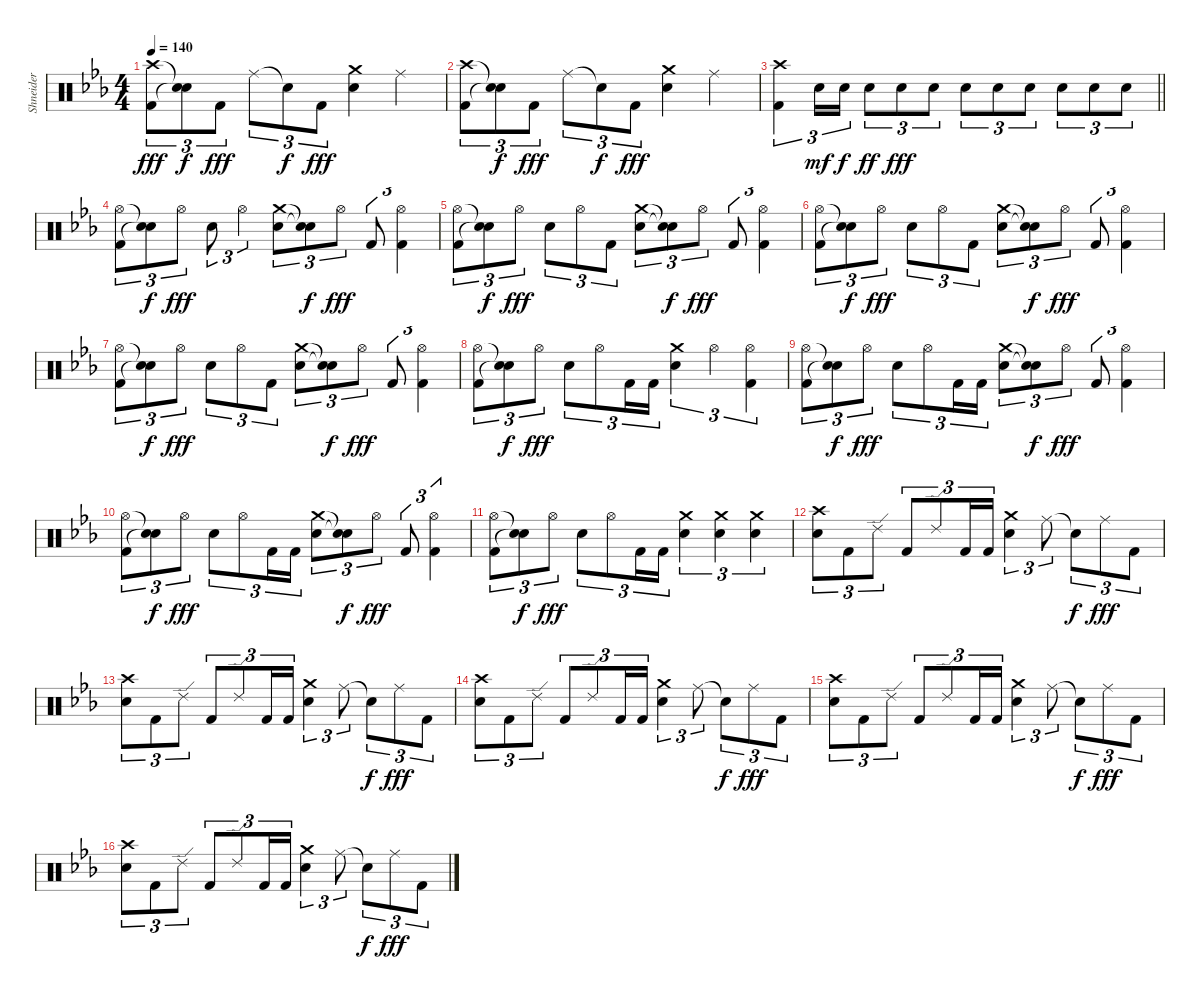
\track ("Shneider" "Shneider") {instrument percussion}
\staff {score}
\articulation defaults
\ts (4 4)
\tempo 140
\clef neutral
\ks eb
("Crash high (hit)" "Kick (hit) 2").8{tu (3 2) dy fff} ("Snare (hit)"{t} "Snare (hit)"{t}).8{tu (3 2) dy f} "Kick (hit) 2".8{tu (3 2) dy fff} "Ride (middle)".8{tu (3 2)} "Snare (hit)"{t}.8{tu (3 2) dy f} "Kick (hit) 2".8{tu (3 2) dy fff} ("Crash medium (hit)" "Snare (hit) 2").4 "Ride (middle)".4 |
("Crash high (hit)" "Kick (hit) 2").8{tu (3 2)} ("Snare (hit)"{t} "Snare (hit)"{t}).8{tu (3 2) dy f} "Kick (hit) 2".8{tu (3 2) dy fff} "Ride (middle)".8{tu (3 2)} "Snare (hit)"{t}.8{tu (3 2) dy f} "Kick (hit) 2".8{tu (3 2) dy fff} ("Crash medium (hit)" "Snare (hit) 2").4 "Ride (middle)".4 |
\barLineRight lightlight
("Crash high (hit)" "Kick (hit) 2").4{tu (3 2)} "Snare (hit) 2".16{tu (3 2) dy mf} "Snare (hit) 2".16{tu (3 2) dy f} "Snare (hit) 2".8{tu (3 2) dy ff} "Snare (hit) 2".8{tu (3 2) dy fff} "Snare (hit) 2".8{tu (3 2)} "Snare (hit) 2".8{tu (3 2)} "Snare (hit) 2".8{tu (3 2)} "Snare (hit) 2".8{tu (3 2)} "Snare (hit) 2".8{tu (3 2)} "Snare (hit) 2".8{tu (3 2)} "Snare (hit) 2".8{tu (3 2)} |
("Hi-Hat (open)" "Kick (hit) 2").8{tu (3 2)} ("Snare (hit)"{t} "Snare (hit)"{t}).8{tu (3 2) dy f} "Hi-Hat (open)".8{tu (3 2) dy fff} "Snare (hit) 2".8{tu (3 2)} "Hi-Hat (open)".4{tu (3 2)} ("Crash medium (hit)" "Snare (hit) 2").8{tu (3 2)} ("Snare (hit)"{t} "Snare (hit)"{t}).8{tu (3 2) dy f} "Hi-Hat (open)".8{tu (3 2) dy fff} "Kick (hit) 2".8{tu (3 2)} ("Hi-Hat (open)" "Kick (hit) 2").4{tu (3 2)} |
("Hi-Hat (open)" "Kick (hit) 2").8{tu (3 2)} ("Snare (hit)"{t} "Snare (hit)"{t}).8{tu (3 2) dy f} "Hi-Hat (open)".8{tu (3 2) dy fff} "Snare (hit) 2".8{tu (3 2)} "Hi-Hat (open)".8{tu (3 2)} "Kick (hit) 2".8{tu (3 2)} ("Crash medium (hit)" "Snare (hit) 2").8{tu (3 2)} ("Snare (hit)"{t} "Snare (hit)"{t}).8{tu (3 2) dy f} "Hi-Hat (open)".8{tu (3 2) dy fff} "Kick (hit) 2".8{tu (3 2)} ("Hi-Hat (open)" "Kick (hit) 2").4{tu (3 2)} |
("Hi-Hat (open)" "Kick (hit) 2").8{tu (3 2)} ("Snare (hit)"{t} "Snare (hit)"{t}).8{tu (3 2) dy f} "Hi-Hat (open)".8{tu (3 2) dy fff} "Snare (hit) 2".8{tu (3 2)} "Hi-Hat (open)".8{tu (3 2)} "Kick (hit) 2".8{tu (3 2)} ("Crash medium (hit)" "Snare (hit) 2").8{tu (3 2)} ("Snare (hit)"{t} "Snare (hit)"{t}).8{tu (3 2) dy f} "Hi-Hat (open)".8{tu (3 2) dy fff} "Kick (hit) 2".8{tu (3 2)} ("Hi-Hat (open)" "Kick (hit) 2").4{tu (3 2)} |
("Hi-Hat (open)" "Kick (hit) 2").8{tu (3 2)} ("Snare (hit)"{t} "Snare (hit)"{t}).8{tu (3 2) dy f} "Hi-Hat (open)".8{tu (3 2) dy fff} "Snare (hit) 2".8{tu (3 2)} "Hi-Hat (open)".8{tu (3 2)} "Kick (hit) 2".8{tu (3 2)} ("Crash medium (hit)" "Snare (hit) 2").8{tu (3 2)} ("Snare (hit)"{t} "Snare (hit)"{t}).8{tu (3 2) dy f} "Hi-Hat (open)".8{tu (3 2) dy fff} "Kick (hit) 2".8{tu (3 2)} ("Hi-Hat (open)" "Kick (hit) 2").4{tu (3 2)} |
("Hi-Hat (open)" "Kick (hit) 2").8{tu (3 2)} ("Snare (hit)"{t} "Snare (hit)"{t}).8{tu (3 2) dy f} "Hi-Hat (open)".8{tu (3 2) dy fff} "Snare (hit) 2".8{tu (3 2)} "Hi-Hat (open)".8{tu (3 2)} "Kick (hit) 2".16{tu (3 2)} "Kick (hit) 2".16{tu (3 2)} ("Crash medium (hit)" "Snare (hit) 2").4{tu (3 2)} "Hi-Hat (open)".4{tu (3 2)} ("Hi-Hat (open)" "Kick (hit) 2").4{tu (3 2)} |
("Hi-Hat (open)" "Kick (hit) 2").8{tu (3 2)} ("Snare (hit)"{t} "Snare (hit)"{t}).8{tu (3 2) dy f} "Hi-Hat (open)".8{tu (3 2) dy fff} "Snare (hit) 2".8{tu (3 2)} "Hi-Hat (open)".8{tu (3 2)} "Kick (hit) 2".16{tu (3 2)} "Kick (hit) 2".16{tu (3 2)} ("Crash medium (hit)" "Snare (hit) 2").8{tu (3 2)} ("Snare (hit)"{t} "Snare (hit)"{t}).8{tu (3 2) dy f} "Hi-Hat (open)".8{tu (3 2) dy fff} "Kick (hit) 2".8{tu (3 2)} ("Hi-Hat (open)" "Kick (hit) 2").4{tu (3 2)} |
("Hi-Hat (open)" "Kick (hit) 2").8{tu (3 2)} ("Snare (hit)"{t} "Snare (hit)"{t}).8{tu (3 2) dy f} "Hi-Hat (open)".8{tu (3 2) dy fff} "Snare (hit) 2".8{tu (3 2)} "Hi-Hat (open)".8{tu (3 2)} "Kick (hit) 2".16{tu (3 2)} "Kick (hit) 2".16{tu (3 2)} ("Crash medium (hit)" "Snare (hit) 2").8{tu (3 2)} ("Snare (hit)"{t} "Snare (hit)"{t}).8{tu (3 2) dy f} "Hi-Hat (open)".8{tu (3 2) dy fff} "Kick (hit) 2".8{tu (3 2)} ("Hi-Hat (open)" "Kick (hit) 2").4{tu (3 2)} |
("Hi-Hat (open)" "Kick (hit) 2").8{tu (3 2)} ("Snare (hit)"{t} "Snare (hit)"{t}).8{tu (3 2) dy f} "Hi-Hat (open)".8{tu (3 2) dy fff} "Snare (hit) 2".8{tu (3 2)} "Hi-Hat (open)".8{tu (3 2)} "Kick (hit) 2".16{tu (3 2)} "Kick (hit) 2".16{tu (3 2)} ("Crash medium (hit)" "Snare (hit) 2").4{tu (3 2)} ("Crash medium (hit)" "Snare (hit) 2").4{tu (3 2)} ("Crash medium (hit)" "Snare (hit) 2").4{tu (3 2)} |
("Crash high (hit)" "Snare (hit) 2").8{tu (3 2)} "Kick (hit) 2".8{tu (3 2)} "Ride (edge) 2".8{tu (3 2)} "Kick (hit) 2".8{tu (3 2)} "Ride (edge) 2".8{tu (3 2)} "Kick (hit) 2".16{tu (3 2)} "Kick (hit) 2".16{tu (3 2)} ("Crash medium (hit)" "Snare (hit) 2").4{tu (3 2)} "Ride (middle)".8{tu (3 2)} "Snare (hit)"{t}.8{tu (3 2) dy f} "Ride (middle)".8{tu (3 2) dy fff} "Kick (hit) 2".8{tu (3 2)} |
("Crash high (hit)" "Snare (hit) 2").8{tu (3 2)} "Kick (hit) 2".8{tu (3 2)} "Ride (edge) 2".8{tu (3 2)} "Kick (hit) 2".8{tu (3 2)} "Ride (edge) 2".8{tu (3 2)} "Kick (hit) 2".16{tu (3 2)} "Kick (hit) 2".16{tu (3 2)} ("Crash medium (hit)" "Snare (hit) 2").4{tu (3 2)} "Ride (middle)".8{tu (3 2)} "Snare (hit)"{t}.8{tu (3 2) dy f} "Ride (middle)".8{tu (3 2) dy fff} "Kick (hit) 2".8{tu (3 2)} |
("Crash high (hit)" "Snare (hit) 2").8{tu (3 2)} "Kick (hit) 2".8{tu (3 2)} "Ride (edge) 2".8{tu (3 2)} "Kick (hit) 2".8{tu (3 2)} "Ride (edge) 2".8{tu (3 2)} "Kick (hit) 2".16{tu (3 2)} "Kick (hit) 2".16{tu (3 2)} ("Crash medium (hit)" "Snare (hit) 2").4{tu (3 2)} "Ride (middle)".8{tu (3 2)} "Snare (hit)"{t}.8{tu (3 2) dy f} "Ride (middle)".8{tu (3 2) dy fff} "Kick (hit) 2".8{tu (3 2)} |
("Crash high (hit)" "Snare (hit) 2").8{tu (3 2)} "Kick (hit) 2".8{tu (3 2)} "Ride (edge) 2".8{tu (3 2)} "Kick (hit) 2".8{tu (3 2)} "Ride (edge) 2".8{tu (3 2)} "Kick (hit) 2".16{tu (3 2)} "Kick (hit) 2".16{tu (3 2)} ("Crash medium (hit)" "Snare (hit) 2").4{tu (3 2)} "Ride (middle)".8{tu (3 2)} "Snare (hit)"{t}.8{tu (3 2) dy f} "Ride (middle)".8{tu (3 2) dy fff} "Kick (hit) 2".8{tu (3 2)} |
("Crash high (hit)" "Snare (hit) 2").8{tu (3 2)} "Kick (hit) 2".8{tu (3 2)} "Ride (edge) 2".8{tu (3 2)} "Kick (hit) 2".8{tu (3 2)} "Ride (edge) 2".8{tu (3 2)} "Kick (hit) 2".16{tu (3 2)} "Kick (hit) 2".16{tu (3 2)} ("Crash medium (hit)" "Snare (hit) 2").4{tu (3 2)} "Ride (middle)".8{tu (3 2)} "Snare (hit)"{t}.8{tu (3 2) dy f} "Ride (middle)".8{tu (3 2) dy fff} "Kick (hit) 2".8{tu (3 2)}
